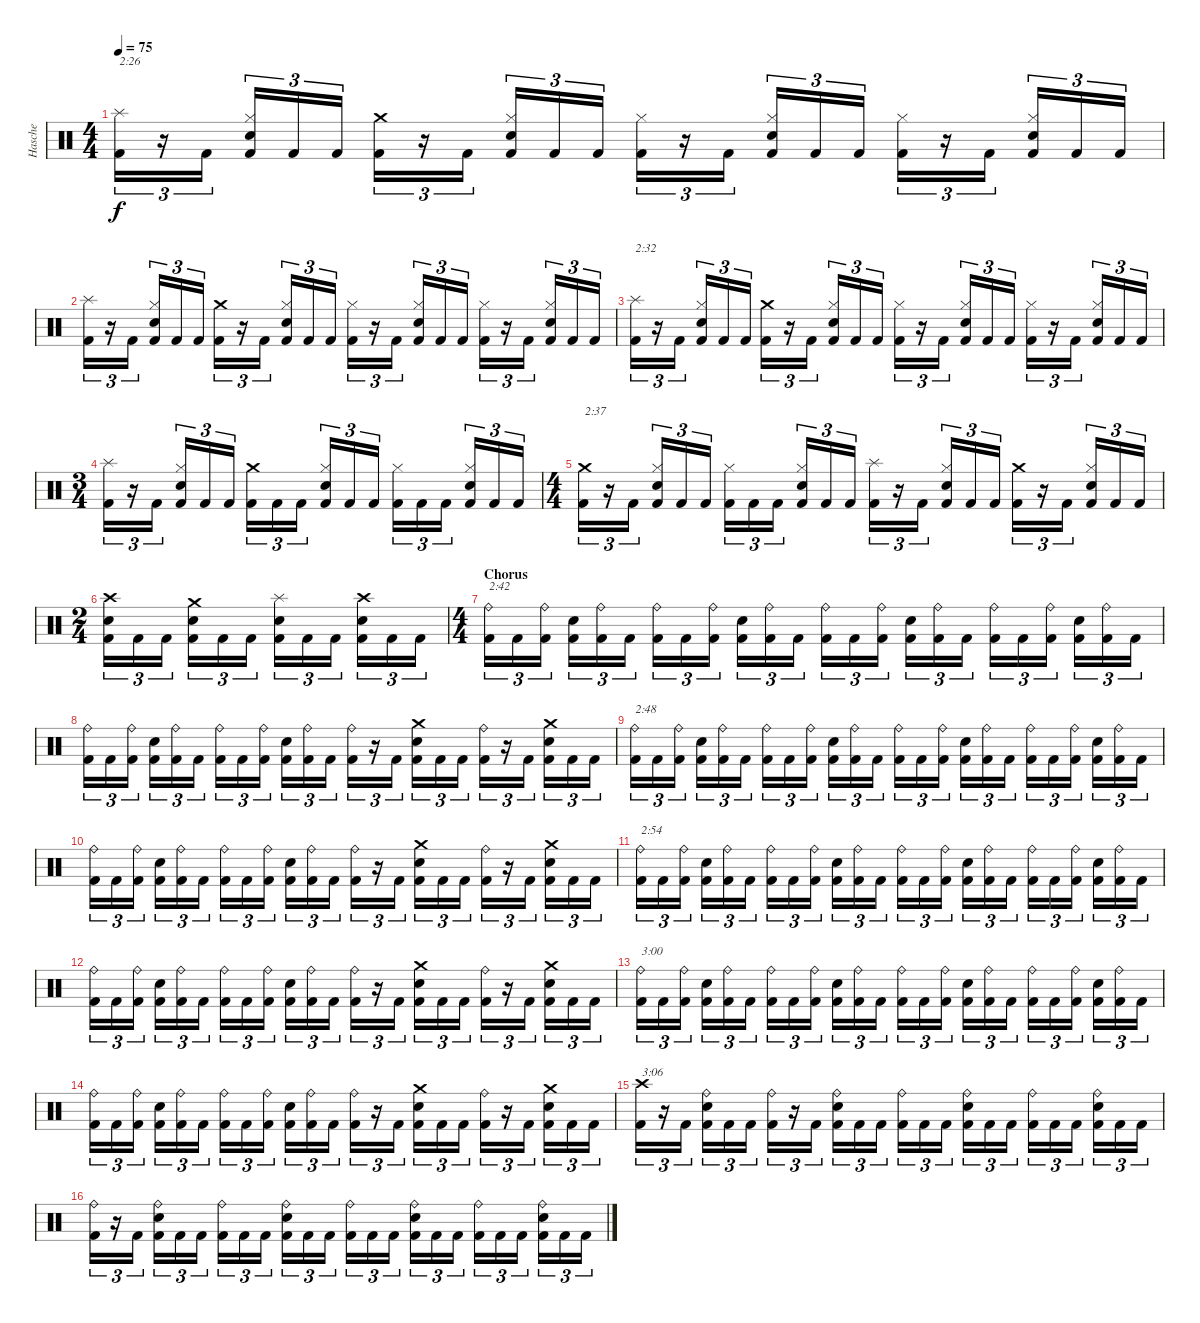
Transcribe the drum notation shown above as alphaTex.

\track ("Hasche" "Hasche") {instrument percussion}
\staff {score}
\articulation defaults
\ts (4 4)
\tempo 75
\clef neutral
\ks c
("Splash (hit)" "Kick (hit) 2").16{tu (3 2) txt "2:26" dy f} r.16{tu (3 2)} "Kick (hit) 2".16{tu (3 2)} ("Hi-Hat (closed)" "Snare (hit) 2" "Kick (hit) 2").16{tu (3 2)} "Kick (hit) 2".16{tu (3 2)} "Kick (hit) 2".16{tu (3 2)} ("Crash medium (hit)" "Kick (hit) 2").16{tu (3 2)} r.16{tu (3 2)} "Kick (hit) 2".16{tu (3 2)} ("Hi-Hat (closed)" "Snare (hit) 2" "Kick (hit) 2").16{tu (3 2)} "Kick (hit) 2".16{tu (3 2)} "Kick (hit) 2".16{tu (3 2)} ("Hi-Hat (closed)" "Kick (hit) 2").16{tu (3 2)} r.16{tu (3 2)} "Kick (hit) 2".16{tu (3 2)} ("Hi-Hat (closed)" "Snare (hit) 2" "Kick (hit) 2").16{tu (3 2)} "Kick (hit) 2".16{tu (3 2)} "Kick (hit) 2".16{tu (3 2)} ("Hi-Hat (closed)" "Kick (hit) 2").16{tu (3 2)} r.16{tu (3 2)} "Kick (hit) 2".16{tu (3 2)} ("Hi-Hat (closed)" "Snare (hit) 2" "Kick (hit) 2").16{tu (3 2)} "Kick (hit) 2".16{tu (3 2)} "Kick (hit) 2".16{tu (3 2)} |
("Splash (hit)" "Kick (hit) 2").16{tu (3 2)} r.16{tu (3 2)} "Kick (hit) 2".16{tu (3 2)} ("Hi-Hat (closed)" "Snare (hit) 2" "Kick (hit) 2").16{tu (3 2)} "Kick (hit) 2".16{tu (3 2)} "Kick (hit) 2".16{tu (3 2)} ("Crash medium (hit)" "Kick (hit) 2").16{tu (3 2)} r.16{tu (3 2)} "Kick (hit) 2".16{tu (3 2)} ("Hi-Hat (closed)" "Snare (hit) 2" "Kick (hit) 2").16{tu (3 2)} "Kick (hit) 2".16{tu (3 2)} "Kick (hit) 2".16{tu (3 2)} ("Hi-Hat (closed)" "Kick (hit) 2").16{tu (3 2)} r.16{tu (3 2)} "Kick (hit) 2".16{tu (3 2)} ("Hi-Hat (closed)" "Snare (hit) 2" "Kick (hit) 2").16{tu (3 2)} "Kick (hit) 2".16{tu (3 2)} "Kick (hit) 2".16{tu (3 2)} ("Hi-Hat (closed)" "Kick (hit) 2").16{tu (3 2)} r.16{tu (3 2)} "Kick (hit) 2".16{tu (3 2)} ("Hi-Hat (closed)" "Snare (hit) 2" "Kick (hit) 2").16{tu (3 2)} "Kick (hit) 2".16{tu (3 2)} "Kick (hit) 2".16{tu (3 2)} |
("Splash (hit)" "Kick (hit) 2").16{tu (3 2) txt "2:32"} r.16{tu (3 2)} "Kick (hit) 2".16{tu (3 2)} ("Hi-Hat (closed)" "Snare (hit) 2" "Kick (hit) 2").16{tu (3 2)} "Kick (hit) 2".16{tu (3 2)} "Kick (hit) 2".16{tu (3 2)} ("Crash medium (hit)" "Kick (hit) 2").16{tu (3 2)} r.16{tu (3 2)} "Kick (hit) 2".16{tu (3 2)} ("Hi-Hat (closed)" "Snare (hit) 2" "Kick (hit) 2").16{tu (3 2)} "Kick (hit) 2".16{tu (3 2)} "Kick (hit) 2".16{tu (3 2)} ("Hi-Hat (closed)" "Kick (hit) 2").16{tu (3 2)} r.16{tu (3 2)} "Kick (hit) 2".16{tu (3 2)} ("Hi-Hat (closed)" "Snare (hit) 2" "Kick (hit) 2").16{tu (3 2)} "Kick (hit) 2".16{tu (3 2)} "Kick (hit) 2".16{tu (3 2)} ("Hi-Hat (closed)" "Kick (hit) 2").16{tu (3 2)} r.16{tu (3 2)} "Kick (hit) 2".16{tu (3 2)} ("Hi-Hat (closed)" "Snare (hit) 2" "Kick (hit) 2").16{tu (3 2)} "Kick (hit) 2".16{tu (3 2)} "Kick (hit) 2".16{tu (3 2)} |
\ts (3 4)
("Splash (hit)" "Kick (hit) 2").16{tu (3 2)} r.16{tu (3 2)} "Kick (hit) 2".16{tu (3 2)} ("Hi-Hat (closed)" "Snare (hit) 2" "Kick (hit) 2").16{tu (3 2)} "Kick (hit) 2".16{tu (3 2)} "Kick (hit) 2".16{tu (3 2)} ("Crash medium (hit)" "Kick (hit) 2").16{tu (3 2)} "Kick (hit) 2".16{tu (3 2)} "Kick (hit) 2".16{tu (3 2)} ("Hi-Hat (closed)" "Snare (hit) 2" "Kick (hit) 2").16{tu (3 2)} "Kick (hit) 2".16{tu (3 2)} "Kick (hit) 2".16{tu (3 2)} ("Hi-Hat (closed)" "Kick (hit) 2").16{tu (3 2)} "Kick (hit) 2".16{tu (3 2)} "Kick (hit) 2".16{tu (3 2)} ("Hi-Hat (closed)" "Snare (hit) 2" "Kick (hit) 2").16{tu (3 2)} "Kick (hit) 2".16{tu (3 2)} "Kick (hit) 2".16{tu (3 2)} |
\ts (4 4)
("Crash medium (hit)" "Kick (hit) 2").16{tu (3 2) txt "2:37"} r.16{tu (3 2)} "Kick (hit) 2".16{tu (3 2)} ("Hi-Hat (closed)" "Snare (hit) 2" "Kick (hit) 2").16{tu (3 2)} "Kick (hit) 2".16{tu (3 2)} "Kick (hit) 2".16{tu (3 2)} ("Hi-Hat (closed)" "Kick (hit) 2").16{tu (3 2)} "Kick (hit) 2".16{tu (3 2)} "Kick (hit) 2".16{tu (3 2)} ("Hi-Hat (closed)" "Snare (hit) 2" "Kick (hit) 2").16{tu (3 2)} "Kick (hit) 2".16{tu (3 2)} "Kick (hit) 2".16{tu (3 2)} ("Splash (hit)" "Kick (hit) 2").16{tu (3 2)} r.16{tu (3 2)} "Kick (hit) 2".16{tu (3 2)} ("Hi-Hat (closed)" "Snare (hit) 2" "Kick (hit) 2").16{tu (3 2)} "Kick (hit) 2".16{tu (3 2)} "Kick (hit) 2".16{tu (3 2)} ("Crash medium (hit)" "Kick (hit) 2").16{tu (3 2)} r.16{tu (3 2)} "Kick (hit) 2".16{tu (3 2)} ("Hi-Hat (closed)" "Snare (hit) 2" "Kick (hit) 2").16{tu (3 2)} "Kick (hit) 2".16{tu (3 2)} "Kick (hit) 2".16{tu (3 2)} |
\ts (2 4)
("Crash high (hit)" "Snare (hit) 2" "Kick (hit) 2").16{tu (3 2)} "Kick (hit) 2".16{tu (3 2)} "Kick (hit) 2".16{tu (3 2)} ("Crash medium (hit)" "Snare (hit) 2" "Kick (hit) 2").16{tu (3 2)} "Kick (hit) 2".16{tu (3 2)} "Kick (hit) 2".16{tu (3 2)} ("Splash (hit)" "Snare (hit) 2" "Kick (hit) 2").16{tu (3 2)} "Kick (hit) 2".16{tu (3 2)} "Kick (hit) 2".16{tu (3 2)} ("Crash high (hit)" "Snare (hit) 2" "Kick (hit) 2").16{tu (3 2)} "Kick (hit) 2".16{tu (3 2)} "Kick (hit) 2".16{tu (3 2)} |
\ts (4 4)
\section ("" "Chorus")
("Ride (bell)" "Kick (hit) 2").16{tu (3 2) txt "2:42"} "Kick (hit) 2".16{tu (3 2)} ("Ride (bell)" "Kick (hit) 2").16{tu (3 2)} ("Snare (hit) 2" "Kick (hit) 2").16{tu (3 2)} ("Ride (bell)" "Kick (hit) 2").16{tu (3 2)} "Kick (hit) 2".16{tu (3 2)} ("Ride (bell)" "Kick (hit) 2").16{tu (3 2)} "Kick (hit) 2".16{tu (3 2)} ("Ride (bell)" "Kick (hit) 2").16{tu (3 2)} ("Snare (hit) 2" "Kick (hit) 2").16{tu (3 2)} ("Ride (bell)" "Kick (hit) 2").16{tu (3 2)} "Kick (hit) 2".16{tu (3 2)} ("Ride (bell)" "Kick (hit) 2").16{tu (3 2)} "Kick (hit) 2".16{tu (3 2)} ("Ride (bell)" "Kick (hit) 2").16{tu (3 2)} ("Snare (hit) 2" "Kick (hit) 2").16{tu (3 2)} ("Ride (bell)" "Kick (hit) 2").16{tu (3 2)} "Kick (hit) 2".16{tu (3 2)} ("Ride (bell)" "Kick (hit) 2").16{tu (3 2)} "Kick (hit) 2".16{tu (3 2)} ("Ride (bell)" "Kick (hit) 2").16{tu (3 2)} ("Snare (hit) 2" "Kick (hit) 2").16{tu (3 2)} ("Ride (bell)" "Kick (hit) 2").16{tu (3 2)} "Kick (hit) 2".16{tu (3 2)} |
("Ride (bell)" "Kick (hit) 2").16{tu (3 2)} "Kick (hit) 2".16{tu (3 2)} ("Ride (bell)" "Kick (hit) 2").16{tu (3 2)} ("Snare (hit) 2" "Kick (hit) 2").16{tu (3 2)} ("Ride (bell)" "Kick (hit) 2").16{tu (3 2)} "Kick (hit) 2".16{tu (3 2)} ("Ride (bell)" "Kick (hit) 2").16{tu (3 2)} "Kick (hit) 2".16{tu (3 2)} ("Ride (bell)" "Kick (hit) 2").16{tu (3 2)} ("Snare (hit) 2" "Kick (hit) 2").16{tu (3 2)} ("Ride (bell)" "Kick (hit) 2").16{tu (3 2)} "Kick (hit) 2".16{tu (3 2)} ("Ride (bell)" "Kick (hit) 2").16{tu (3 2)} r.16{tu (3 2)} "Kick (hit) 2".16{tu (3 2)} ("Crash medium (hit)" "Snare (hit) 2" "Kick (hit) 2").16{tu (3 2)} "Kick (hit) 2".16{tu (3 2)} "Kick (hit) 2".16{tu (3 2)} ("Ride (bell)" "Kick (hit) 2").16{tu (3 2)} r.16{tu (3 2)} "Kick (hit) 2".16{tu (3 2)} ("Crash medium (hit)" "Snare (hit) 2" "Kick (hit) 2").16{tu (3 2)} "Kick (hit) 2".16{tu (3 2)} "Kick (hit) 2".16{tu (3 2)} |
("Ride (bell)" "Kick (hit) 2").16{tu (3 2) txt "2:48"} "Kick (hit) 2".16{tu (3 2)} ("Ride (bell)" "Kick (hit) 2").16{tu (3 2)} ("Snare (hit) 2" "Kick (hit) 2").16{tu (3 2)} ("Ride (bell)" "Kick (hit) 2").16{tu (3 2)} "Kick (hit) 2".16{tu (3 2)} ("Ride (bell)" "Kick (hit) 2").16{tu (3 2)} "Kick (hit) 2".16{tu (3 2)} ("Ride (bell)" "Kick (hit) 2").16{tu (3 2)} ("Snare (hit) 2" "Kick (hit) 2").16{tu (3 2)} ("Ride (bell)" "Kick (hit) 2").16{tu (3 2)} "Kick (hit) 2".16{tu (3 2)} ("Ride (bell)" "Kick (hit) 2").16{tu (3 2)} "Kick (hit) 2".16{tu (3 2)} ("Ride (bell)" "Kick (hit) 2").16{tu (3 2)} ("Snare (hit) 2" "Kick (hit) 2").16{tu (3 2)} ("Ride (bell)" "Kick (hit) 2").16{tu (3 2)} "Kick (hit) 2".16{tu (3 2)} ("Ride (bell)" "Kick (hit) 2").16{tu (3 2)} "Kick (hit) 2".16{tu (3 2)} ("Ride (bell)" "Kick (hit) 2").16{tu (3 2)} ("Snare (hit) 2" "Kick (hit) 2").16{tu (3 2)} ("Ride (bell)" "Kick (hit) 2").16{tu (3 2)} "Kick (hit) 2".16{tu (3 2)} |
("Ride (bell)" "Kick (hit) 2").16{tu (3 2)} "Kick (hit) 2".16{tu (3 2)} ("Ride (bell)" "Kick (hit) 2").16{tu (3 2)} ("Snare (hit) 2" "Kick (hit) 2").16{tu (3 2)} ("Ride (bell)" "Kick (hit) 2").16{tu (3 2)} "Kick (hit) 2".16{tu (3 2)} ("Ride (bell)" "Kick (hit) 2").16{tu (3 2)} "Kick (hit) 2".16{tu (3 2)} ("Ride (bell)" "Kick (hit) 2").16{tu (3 2)} ("Snare (hit) 2" "Kick (hit) 2").16{tu (3 2)} ("Ride (bell)" "Kick (hit) 2").16{tu (3 2)} "Kick (hit) 2".16{tu (3 2)} ("Ride (bell)" "Kick (hit) 2").16{tu (3 2)} r.16{tu (3 2)} "Kick (hit) 2".16{tu (3 2)} ("Crash medium (hit)" "Snare (hit) 2" "Kick (hit) 2").16{tu (3 2)} "Kick (hit) 2".16{tu (3 2)} "Kick (hit) 2".16{tu (3 2)} ("Ride (bell)" "Kick (hit) 2").16{tu (3 2)} r.16{tu (3 2)} "Kick (hit) 2".16{tu (3 2)} ("Crash medium (hit)" "Snare (hit) 2" "Kick (hit) 2").16{tu (3 2)} "Kick (hit) 2".16{tu (3 2)} "Kick (hit) 2".16{tu (3 2)} |
("Ride (bell)" "Kick (hit) 2").16{tu (3 2) txt "2:54"} "Kick (hit) 2".16{tu (3 2)} ("Ride (bell)" "Kick (hit) 2").16{tu (3 2)} ("Snare (hit) 2" "Kick (hit) 2").16{tu (3 2)} ("Ride (bell)" "Kick (hit) 2").16{tu (3 2)} "Kick (hit) 2".16{tu (3 2)} ("Ride (bell)" "Kick (hit) 2").16{tu (3 2)} "Kick (hit) 2".16{tu (3 2)} ("Ride (bell)" "Kick (hit) 2").16{tu (3 2)} ("Snare (hit) 2" "Kick (hit) 2").16{tu (3 2)} ("Ride (bell)" "Kick (hit) 2").16{tu (3 2)} "Kick (hit) 2".16{tu (3 2)} ("Ride (bell)" "Kick (hit) 2").16{tu (3 2)} "Kick (hit) 2".16{tu (3 2)} ("Ride (bell)" "Kick (hit) 2").16{tu (3 2)} ("Snare (hit) 2" "Kick (hit) 2").16{tu (3 2)} ("Ride (bell)" "Kick (hit) 2").16{tu (3 2)} "Kick (hit) 2".16{tu (3 2)} ("Ride (bell)" "Kick (hit) 2").16{tu (3 2)} "Kick (hit) 2".16{tu (3 2)} ("Ride (bell)" "Kick (hit) 2").16{tu (3 2)} ("Snare (hit) 2" "Kick (hit) 2").16{tu (3 2)} ("Ride (bell)" "Kick (hit) 2").16{tu (3 2)} "Kick (hit) 2".16{tu (3 2)} |
("Ride (bell)" "Kick (hit) 2").16{tu (3 2)} "Kick (hit) 2".16{tu (3 2)} ("Ride (bell)" "Kick (hit) 2").16{tu (3 2)} ("Snare (hit) 2" "Kick (hit) 2").16{tu (3 2)} ("Ride (bell)" "Kick (hit) 2").16{tu (3 2)} "Kick (hit) 2".16{tu (3 2)} ("Ride (bell)" "Kick (hit) 2").16{tu (3 2)} "Kick (hit) 2".16{tu (3 2)} ("Ride (bell)" "Kick (hit) 2").16{tu (3 2)} ("Snare (hit) 2" "Kick (hit) 2").16{tu (3 2)} ("Ride (bell)" "Kick (hit) 2").16{tu (3 2)} "Kick (hit) 2".16{tu (3 2)} ("Ride (bell)" "Kick (hit) 2").16{tu (3 2)} r.16{tu (3 2)} "Kick (hit) 2".16{tu (3 2)} ("Crash medium (hit)" "Snare (hit) 2" "Kick (hit) 2").16{tu (3 2)} "Kick (hit) 2".16{tu (3 2)} "Kick (hit) 2".16{tu (3 2)} ("Ride (bell)" "Kick (hit) 2").16{tu (3 2)} r.16{tu (3 2)} "Kick (hit) 2".16{tu (3 2)} ("Crash medium (hit)" "Snare (hit) 2" "Kick (hit) 2").16{tu (3 2)} "Kick (hit) 2".16{tu (3 2)} "Kick (hit) 2".16{tu (3 2)} |
("Ride (bell)" "Kick (hit) 2").16{tu (3 2) txt "3:00"} "Kick (hit) 2".16{tu (3 2)} ("Ride (bell)" "Kick (hit) 2").16{tu (3 2)} ("Snare (hit) 2" "Kick (hit) 2").16{tu (3 2)} ("Ride (bell)" "Kick (hit) 2").16{tu (3 2)} "Kick (hit) 2".16{tu (3 2)} ("Ride (bell)" "Kick (hit) 2").16{tu (3 2)} "Kick (hit) 2".16{tu (3 2)} ("Ride (bell)" "Kick (hit) 2").16{tu (3 2)} ("Snare (hit) 2" "Kick (hit) 2").16{tu (3 2)} ("Ride (bell)" "Kick (hit) 2").16{tu (3 2)} "Kick (hit) 2".16{tu (3 2)} ("Ride (bell)" "Kick (hit) 2").16{tu (3 2)} "Kick (hit) 2".16{tu (3 2)} ("Ride (bell)" "Kick (hit) 2").16{tu (3 2)} ("Snare (hit) 2" "Kick (hit) 2").16{tu (3 2)} ("Ride (bell)" "Kick (hit) 2").16{tu (3 2)} "Kick (hit) 2".16{tu (3 2)} ("Ride (bell)" "Kick (hit) 2").16{tu (3 2)} "Kick (hit) 2".16{tu (3 2)} ("Ride (bell)" "Kick (hit) 2").16{tu (3 2)} ("Snare (hit) 2" "Kick (hit) 2").16{tu (3 2)} ("Ride (bell)" "Kick (hit) 2").16{tu (3 2)} "Kick (hit) 2".16{tu (3 2)} |
("Ride (bell)" "Kick (hit) 2").16{tu (3 2)} "Kick (hit) 2".16{tu (3 2)} ("Ride (bell)" "Kick (hit) 2").16{tu (3 2)} ("Snare (hit) 2" "Kick (hit) 2").16{tu (3 2)} ("Ride (bell)" "Kick (hit) 2").16{tu (3 2)} "Kick (hit) 2".16{tu (3 2)} ("Ride (bell)" "Kick (hit) 2").16{tu (3 2)} "Kick (hit) 2".16{tu (3 2)} ("Ride (bell)" "Kick (hit) 2").16{tu (3 2)} ("Snare (hit) 2" "Kick (hit) 2").16{tu (3 2)} ("Ride (bell)" "Kick (hit) 2").16{tu (3 2)} "Kick (hit) 2".16{tu (3 2)} ("Ride (bell)" "Kick (hit) 2").16{tu (3 2)} r.16{tu (3 2)} "Kick (hit) 2".16{tu (3 2)} ("Crash medium (hit)" "Snare (hit) 2" "Kick (hit) 2").16{tu (3 2)} "Kick (hit) 2".16{tu (3 2)} "Kick (hit) 2".16{tu (3 2)} ("Ride (bell)" "Kick (hit) 2").16{tu (3 2)} r.16{tu (3 2)} "Kick (hit) 2".16{tu (3 2)} ("Crash medium (hit)" "Snare (hit) 2" "Kick (hit) 2").16{tu (3 2)} "Kick (hit) 2".16{tu (3 2)} "Kick (hit) 2".16{tu (3 2)} |
("Crash high (hit)" "Kick (hit) 2").16{tu (3 2) txt "3:06"} r.16{tu (3 2)} "Kick (hit) 2".16{tu (3 2)} ("Ride (bell)" "Snare (hit) 2" "Kick (hit) 2").16{tu (3 2)} "Kick (hit) 2".16{tu (3 2)} "Kick (hit) 2".16{tu (3 2)} ("Ride (bell)" "Kick (hit) 2").16{tu (3 2)} r.16{tu (3 2)} "Kick (hit) 2".16{tu (3 2)} ("Ride (bell)" "Snare (hit) 2" "Kick (hit) 2").16{tu (3 2)} "Kick (hit) 2".16{tu (3 2)} "Kick (hit) 2".16{tu (3 2)} ("Ride (bell)" "Kick (hit) 2").16{tu (3 2)} "Kick (hit) 2".16{tu (3 2)} "Kick (hit) 2".16{tu (3 2)} ("Ride (bell)" "Snare (hit) 2" "Kick (hit) 2").16{tu (3 2)} "Kick (hit) 2".16{tu (3 2)} "Kick (hit) 2".16{tu (3 2)} ("Ride (bell)" "Kick (hit) 2").16{tu (3 2)} "Kick (hit) 2".16{tu (3 2)} "Kick (hit) 2".16{tu (3 2)} ("Ride (bell)" "Snare (hit) 2" "Kick (hit) 2").16{tu (3 2)} "Kick (hit) 2".16{tu (3 2)} "Kick (hit) 2".16{tu (3 2)} |
("Ride (bell)" "Kick (hit) 2").16{tu (3 2)} r.16{tu (3 2)} "Kick (hit) 2".16{tu (3 2)} ("Ride (bell)" "Snare (hit) 2" "Kick (hit) 2").16{tu (3 2)} "Kick (hit) 2".16{tu (3 2)} "Kick (hit) 2".16{tu (3 2)} ("Ride (bell)" "Kick (hit) 2").16{tu (3 2)} "Kick (hit) 2".16{tu (3 2)} "Kick (hit) 2".16{tu (3 2)} ("Ride (bell)" "Snare (hit) 2" "Kick (hit) 2").16{tu (3 2)} "Kick (hit) 2".16{tu (3 2)} "Kick (hit) 2".16{tu (3 2)} ("Ride (bell)" "Kick (hit) 2").16{tu (3 2)} "Kick (hit) 2".16{tu (3 2)} "Kick (hit) 2".16{tu (3 2)} ("Ride (bell)" "Snare (hit) 2" "Kick (hit) 2").16{tu (3 2)} "Kick (hit) 2".16{tu (3 2)} "Kick (hit) 2".16{tu (3 2)} ("Ride (bell)" "Kick (hit) 2").16{tu (3 2)} "Kick (hit) 2".16{tu (3 2)} "Kick (hit) 2".16{tu (3 2)} ("Ride (bell)" "Snare (hit) 2" "Kick (hit) 2").16{tu (3 2)} "Kick (hit) 2".16{tu (3 2)} "Kick (hit) 2".16{tu (3 2)}
